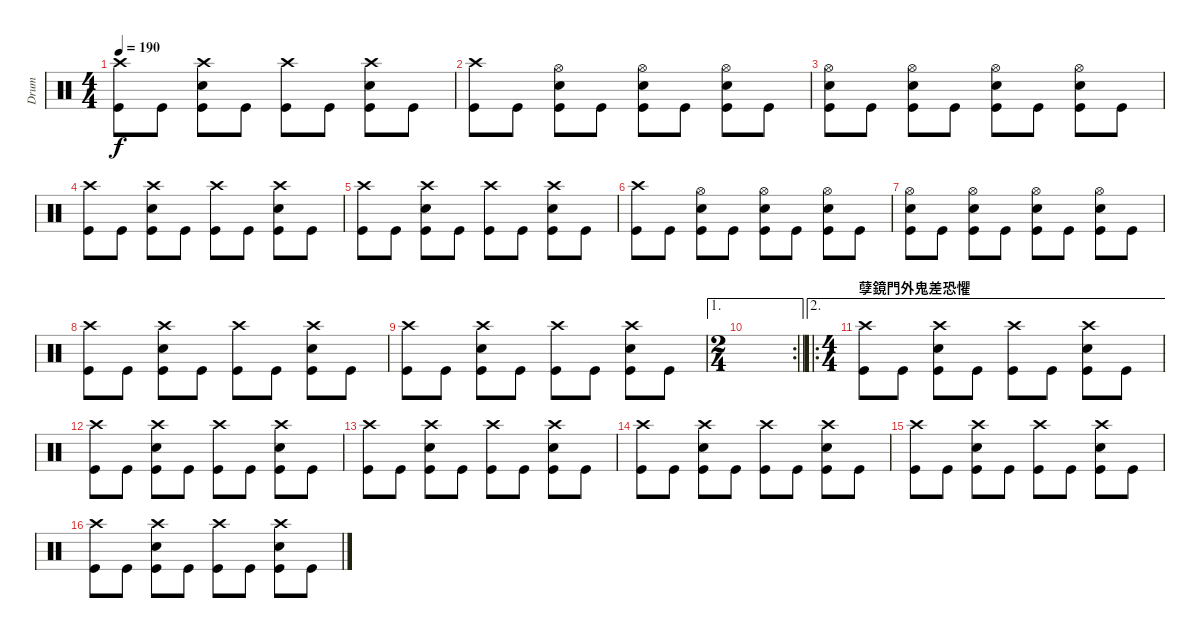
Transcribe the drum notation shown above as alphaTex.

\track ("Drum" "Drum") {instrument percussion}
\staff {score}
\articulation defaults
\ts (4 4)
\tempo 190
\clef neutral
\ks c
("Crash high (hit)" "Kick (hit)").8{dy f} "Kick (hit)".8 ("Crash high (hit)" "Kick (hit)" "Snare (hit) 2").8 "Kick (hit)".8 ("Crash high (hit)" "Kick (hit)").8 "Kick (hit)".8 ("Snare (hit) 2" "Kick (hit)" "Crash high (hit)").8 "Kick (hit)".8 |
("Crash high (hit)" "Kick (hit)").8 "Kick (hit)".8 ("Hi-Hat (open)" "Snare (hit) 2" "Kick (hit)").8 "Kick (hit)".8 ("Hi-Hat (open)" "Snare (hit) 2" "Kick (hit)").8 "Kick (hit)".8 ("Hi-Hat (open)" "Snare (hit) 2" "Kick (hit)").8 "Kick (hit)".8 |
("Hi-Hat (open)" "Snare (hit) 2" "Kick (hit)").8 "Kick (hit)".8 ("Hi-Hat (open)" "Snare (hit) 2" "Kick (hit)").8 "Kick (hit)".8 ("Hi-Hat (open)" "Snare (hit) 2" "Kick (hit)").8 "Kick (hit)".8 ("Hi-Hat (open)" "Snare (hit) 2" "Kick (hit)").8 "Kick (hit)".8 |
("Crash high (hit)" "Kick (hit)").8 "Kick (hit)".8 ("Crash high (hit)" "Kick (hit)" "Snare (hit) 2").8 "Kick (hit)".8 ("Crash high (hit)" "Kick (hit)").8 "Kick (hit)".8 ("Snare (hit) 2" "Kick (hit)" "Crash high (hit)").8 "Kick (hit)".8 |
("Crash high (hit)" "Kick (hit)").8 "Kick (hit)".8 ("Crash high (hit)" "Kick (hit)" "Snare (hit) 2").8 "Kick (hit)".8 ("Crash high (hit)" "Kick (hit)").8 "Kick (hit)".8 ("Snare (hit) 2" "Kick (hit)" "Crash high (hit)").8 "Kick (hit)".8 |
("Crash high (hit)" "Kick (hit)").8 "Kick (hit)".8 ("Hi-Hat (open)" "Snare (hit) 2" "Kick (hit)").8 "Kick (hit)".8 ("Hi-Hat (open)" "Snare (hit) 2" "Kick (hit)").8 "Kick (hit)".8 ("Hi-Hat (open)" "Snare (hit) 2" "Kick (hit)").8 "Kick (hit)".8 |
("Hi-Hat (open)" "Snare (hit) 2" "Kick (hit)").8 "Kick (hit)".8 ("Hi-Hat (open)" "Snare (hit) 2" "Kick (hit)").8 "Kick (hit)".8 ("Hi-Hat (open)" "Snare (hit) 2" "Kick (hit)").8 "Kick (hit)".8 ("Hi-Hat (open)" "Snare (hit) 2" "Kick (hit)").8 "Kick (hit)".8 |
("Crash high (hit)" "Kick (hit)").8 "Kick (hit)".8 ("Crash high (hit)" "Kick (hit)" "Snare (hit) 2").8 "Kick (hit)".8 ("Crash high (hit)" "Kick (hit)").8 "Kick (hit)".8 ("Snare (hit) 2" "Kick (hit)" "Crash high (hit)").8 "Kick (hit)".8 |
("Crash high (hit)" "Kick (hit)").8 "Kick (hit)".8 ("Crash high (hit)" "Kick (hit)" "Snare (hit) 2").8 "Kick (hit)".8 ("Crash high (hit)" "Kick (hit)").8 "Kick (hit)".8 ("Snare (hit) 2" "Kick (hit)" "Crash high (hit)").8 "Kick (hit)".8 |
\ae 1
\rc 2
\ts (2 4)
\barLineRight lightlight
|
\ae 2
\ro
\ts (4 4)
\section ("" "孽鏡門外鬼差恐懼")
("Crash high (hit)" "Kick (hit)").8 "Kick (hit)".8 ("Crash high (hit)" "Kick (hit)" "Snare (hit) 2").8 "Kick (hit)".8 ("Crash high (hit)" "Kick (hit)").8 "Kick (hit)".8 ("Snare (hit) 2" "Kick (hit)" "Crash high (hit)").8 "Kick (hit)".8 |
("Crash high (hit)" "Kick (hit)").8 "Kick (hit)".8 ("Crash high (hit)" "Kick (hit)" "Snare (hit) 2").8 "Kick (hit)".8 ("Crash high (hit)" "Kick (hit)").8 "Kick (hit)".8 ("Snare (hit) 2" "Kick (hit)" "Crash high (hit)").8 "Kick (hit)".8 |
("Crash high (hit)" "Kick (hit)").8 "Kick (hit)".8 ("Crash high (hit)" "Kick (hit)" "Snare (hit) 2").8 "Kick (hit)".8 ("Crash high (hit)" "Kick (hit)").8 "Kick (hit)".8 ("Snare (hit) 2" "Kick (hit)" "Crash high (hit)").8 "Kick (hit)".8 |
("Crash high (hit)" "Kick (hit)").8 "Kick (hit)".8 ("Crash high (hit)" "Kick (hit)" "Snare (hit) 2").8 "Kick (hit)".8 ("Crash high (hit)" "Kick (hit)").8 "Kick (hit)".8 ("Snare (hit) 2" "Kick (hit)" "Crash high (hit)").8 "Kick (hit)".8 |
("Crash high (hit)" "Kick (hit)").8 "Kick (hit)".8 ("Crash high (hit)" "Kick (hit)" "Snare (hit) 2").8 "Kick (hit)".8 ("Crash high (hit)" "Kick (hit)").8 "Kick (hit)".8 ("Snare (hit) 2" "Kick (hit)" "Crash high (hit)").8 "Kick (hit)".8 |
("Crash high (hit)" "Kick (hit)").8 "Kick (hit)".8 ("Crash high (hit)" "Kick (hit)" "Snare (hit) 2").8 "Kick (hit)".8 ("Crash high (hit)" "Kick (hit)").8 "Kick (hit)".8 ("Snare (hit) 2" "Kick (hit)" "Crash high (hit)").8 "Kick (hit)".8
